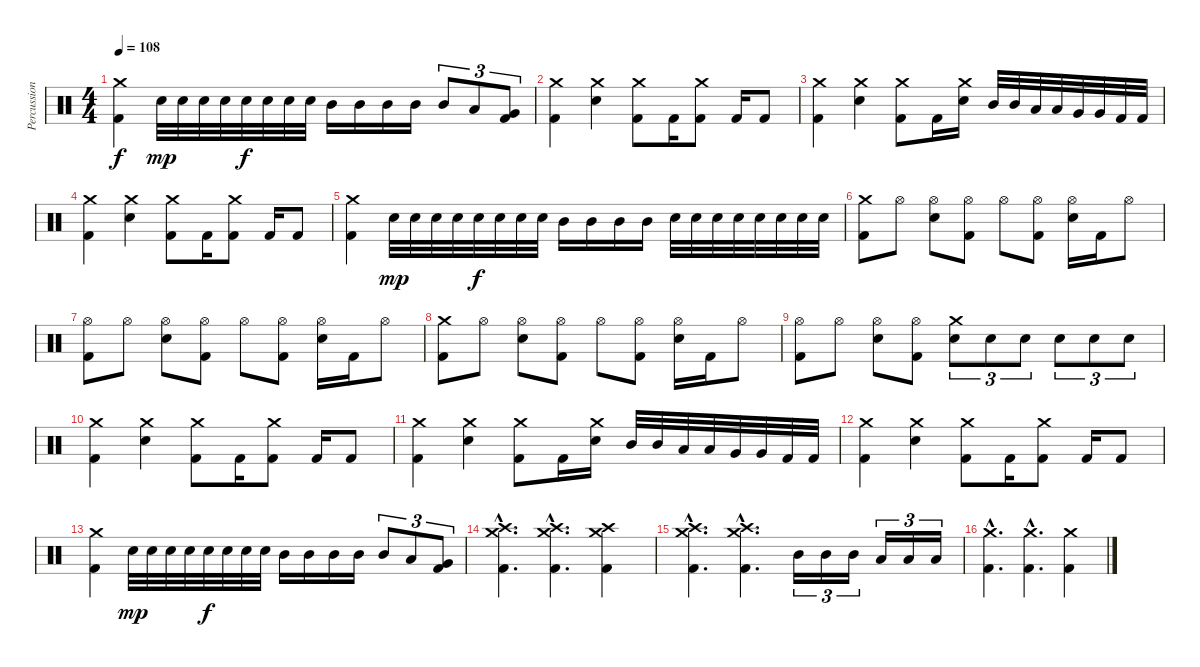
\track ("Percussions" "Percussion") {instrument percussion}
\staff {score}
\articulation defaults
\ts (4 4)
\tempo 108
\clef neutral
\ks c
("Crash medium (hit)" "Kick (hit) 2").4{dy f} "Electric Snare (hit)".32{dy mp} "Electric Snare (hit)".32 "Electric Snare (hit)".32 "Electric Snare (hit)".32 "Electric Snare (hit)".32{dy f} "Electric Snare (hit)".32 "Electric Snare (hit)".32 "Electric Snare (hit)".32 "Mid Tom (hit)".16 "Mid Tom (hit)".16 "Mid Tom (hit)".16 "Mid Tom (hit)".16 "Mid Tom (hit)".8{tu (3 2)} "Low Tom (hit)".8{tu (3 2)} ("Very Low Tom (hit)" "Kick (hit) 2").8{tu (3 2)} |
("Crash medium (hit)" "Kick (hit) 2").4 ("Crash medium (hit)" "Electric Snare (hit)").4 ("Crash medium (hit)" "Kick (hit) 2").8 "Kick (hit) 2".16 ("Crash medium (hit)" "Kick (hit) 2").8 "Kick (hit) 2".16 "Kick (hit) 2".8 |
("Crash medium (hit)" "Kick (hit) 2").4 ("Crash medium (hit)" "Electric Snare (hit)").4 ("Crash medium (hit)" "Kick (hit) 2").8 "Kick (hit) 2".16 ("Crash medium (hit)" "Electric Snare (hit)").16 "Mid Tom (hit)".32 "Mid Tom (hit)".32 "Low Tom (hit)".32 "Low Tom (hit)".32 "Very Low Tom (hit)".32 "Very Low Tom (hit)".32 "Kick (hit) 2".32 "Kick (hit) 2".32 |
("Crash medium (hit)" "Kick (hit) 2").4 ("Crash medium (hit)" "Electric Snare (hit)").4 ("Crash medium (hit)" "Kick (hit) 2").8 "Kick (hit) 2".16 ("Crash medium (hit)" "Kick (hit) 2").8 "Kick (hit) 2".16 "Kick (hit) 2".8 |
("Crash medium (hit)" "Kick (hit) 2").4 "Electric Snare (hit)".32{dy mp} "Electric Snare (hit)".32 "Electric Snare (hit)".32 "Electric Snare (hit)".32 "Electric Snare (hit)".32{dy f} "Electric Snare (hit)".32 "Electric Snare (hit)".32 "Electric Snare (hit)".32 "Mid Tom (hit)".16 "Mid Tom (hit)".16 "Mid Tom (hit)".16 "Mid Tom (hit)".16 "Electric Snare (hit)".32 "Electric Snare (hit)".32 "Electric Snare (hit)".32 "Electric Snare (hit)".32 "Electric Snare (hit)".32 "Electric Snare (hit)".32 "Electric Snare (hit)".32 "Electric Snare (hit)".32 |
("Crash medium (hit)" "Kick (hit) 2").8 "Hi-Hat (open)".8 ("Hi-Hat (open)" "Electric Snare (hit)").8 ("Hi-Hat (open)" "Kick (hit) 2").8 "Hi-Hat (open)".8 ("Hi-Hat (open)" "Kick (hit) 2").8 ("Hi-Hat (open)" "Electric Snare (hit)").16 "Kick (hit) 2".16 "Hi-Hat (open)".8 |
("Hi-Hat (open)" "Kick (hit) 2").8 "Hi-Hat (open)".8 ("Hi-Hat (open)" "Electric Snare (hit)").8 ("Hi-Hat (open)" "Kick (hit) 2").8 "Hi-Hat (open)".8 ("Hi-Hat (open)" "Kick (hit) 2").8 ("Hi-Hat (open)" "Electric Snare (hit)").16 "Kick (hit) 2".16 "Hi-Hat (open)".8 |
("Crash medium (hit)" "Kick (hit) 2").8 "Hi-Hat (open)".8 ("Hi-Hat (open)" "Electric Snare (hit)").8 ("Hi-Hat (open)" "Kick (hit) 2").8 "Hi-Hat (open)".8 ("Hi-Hat (open)" "Kick (hit) 2").8 ("Hi-Hat (open)" "Electric Snare (hit)").16 "Kick (hit) 2".16 "Hi-Hat (open)".8 |
("Hi-Hat (open)" "Kick (hit) 2").8 "Hi-Hat (open)".8 ("Hi-Hat (open)" "Electric Snare (hit)").8 ("Hi-Hat (open)" "Kick (hit) 2").8 ("Crash medium (hit)" "Electric Snare (hit)").8{tu (3 2)} "Electric Snare (hit)".8{tu (3 2)} "Electric Snare (hit)".8{tu (3 2)} "Electric Snare (hit)".8{tu (3 2)} "Electric Snare (hit)".8{tu (3 2)} "Electric Snare (hit)".8{tu (3 2)} |
("Crash medium (hit)" "Kick (hit) 2").4 ("Crash medium (hit)" "Electric Snare (hit)").4 ("Crash medium (hit)" "Kick (hit) 2").8 "Kick (hit) 2".16 ("Crash medium (hit)" "Kick (hit) 2").8 "Kick (hit) 2".16 "Kick (hit) 2".8 |
("Crash medium (hit)" "Kick (hit) 2").4 ("Crash medium (hit)" "Electric Snare (hit)").4 ("Crash medium (hit)" "Kick (hit) 2").8 "Kick (hit) 2".16 ("Crash medium (hit)" "Electric Snare (hit)").16 "Mid Tom (hit)".32 "Mid Tom (hit)".32 "Low Tom (hit)".32 "Low Tom (hit)".32 "Very Low Tom (hit)".32 "Very Low Tom (hit)".32 "Kick (hit) 2".32 "Kick (hit) 2".32 |
("Crash medium (hit)" "Kick (hit) 2").4 ("Crash medium (hit)" "Electric Snare (hit)").4 ("Crash medium (hit)" "Kick (hit) 2").8 "Kick (hit) 2".16 ("Crash medium (hit)" "Kick (hit) 2").8 "Kick (hit) 2".16 "Kick (hit) 2".8 |
("Crash medium (hit)" "Kick (hit) 2").4 "Electric Snare (hit)".32{dy mp} "Electric Snare (hit)".32 "Electric Snare (hit)".32 "Electric Snare (hit)".32 "Electric Snare (hit)".32{dy f} "Electric Snare (hit)".32 "Electric Snare (hit)".32 "Electric Snare (hit)".32 "Mid Tom (hit)".16 "Mid Tom (hit)".16 "Mid Tom (hit)".16 "Mid Tom (hit)".16 "Mid Tom (hit)".8{tu (3 2)} "Low Tom (hit)".8{tu (3 2)} ("Very Low Tom (hit)" "Kick (hit) 2").8{tu (3 2)} |
("Crash medium (hit)"{hac} "Crash high (hit)"{hac} "Kick (hit) 2"{hac}).4{d} ("Crash medium (hit)"{hac} "Crash high (hit)"{hac} "Kick (hit) 2"{hac}).4{d} ("Crash medium (hit)" "Crash high (hit)" "Kick (hit) 2").4 |
("Crash medium (hit)"{hac} "Crash high (hit)"{hac} "Kick (hit) 2"{hac}).4{d} ("Crash medium (hit)"{hac} "Crash high (hit)"{hac} "Kick (hit) 2"{hac}).4{d} "Mid Tom (hit)".16{tu (3 2)} "Mid Tom (hit)".16{tu (3 2)} "Mid Tom (hit)".16{tu (3 2)} "Low Tom (hit)".16{tu (3 2)} "Low Tom (hit)".16{tu (3 2)} "Low Tom (hit)".16{tu (3 2)} |
("Crash medium (hit)"{hac} "Kick (hit) 2"{hac}).4{d} ("Crash medium (hit)"{hac} "Kick (hit) 2"{hac}).4{d} ("Crash medium (hit)" "Kick (hit) 2").4
